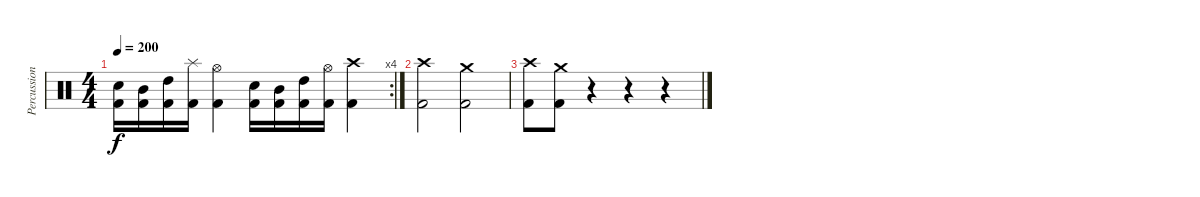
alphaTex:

\track ("Percussion" "Percussion") {instrument percussion}
\staff {score}
\articulation defaults
\rc 4
\ts (4 4)
\tempo 200
\clef neutral
\ks c
("Electric Snare (hit)" "Kick (hit) 2").16{dy f} ("Mid Tom (hit)" "Kick (hit) 2").16 ("High Tom (hit)" "Kick (hit) 2").16 ("Splash (hit)" "Kick (hit) 2").16 ("Hi-Hat (open)" "Kick (hit) 2").4 ("Electric Snare (hit)" "Kick (hit) 2").16 ("Mid Tom (hit)" "Kick (hit) 2").16 ("High Tom (hit)" "Kick (hit) 2").16 ("Hi-Hat (open)" "Kick (hit) 2").16 ("Crash high (hit)" "Kick (hit) 2").4 |
("Crash high (hit)" "Kick (hit) 2").2 ("Crash medium (hit)" "Kick (hit) 2").2 |
("Crash high (hit)" "Kick (hit) 2").8 ("Crash medium (hit)" "Kick (hit) 2").8 r.4 r.4 r.4
